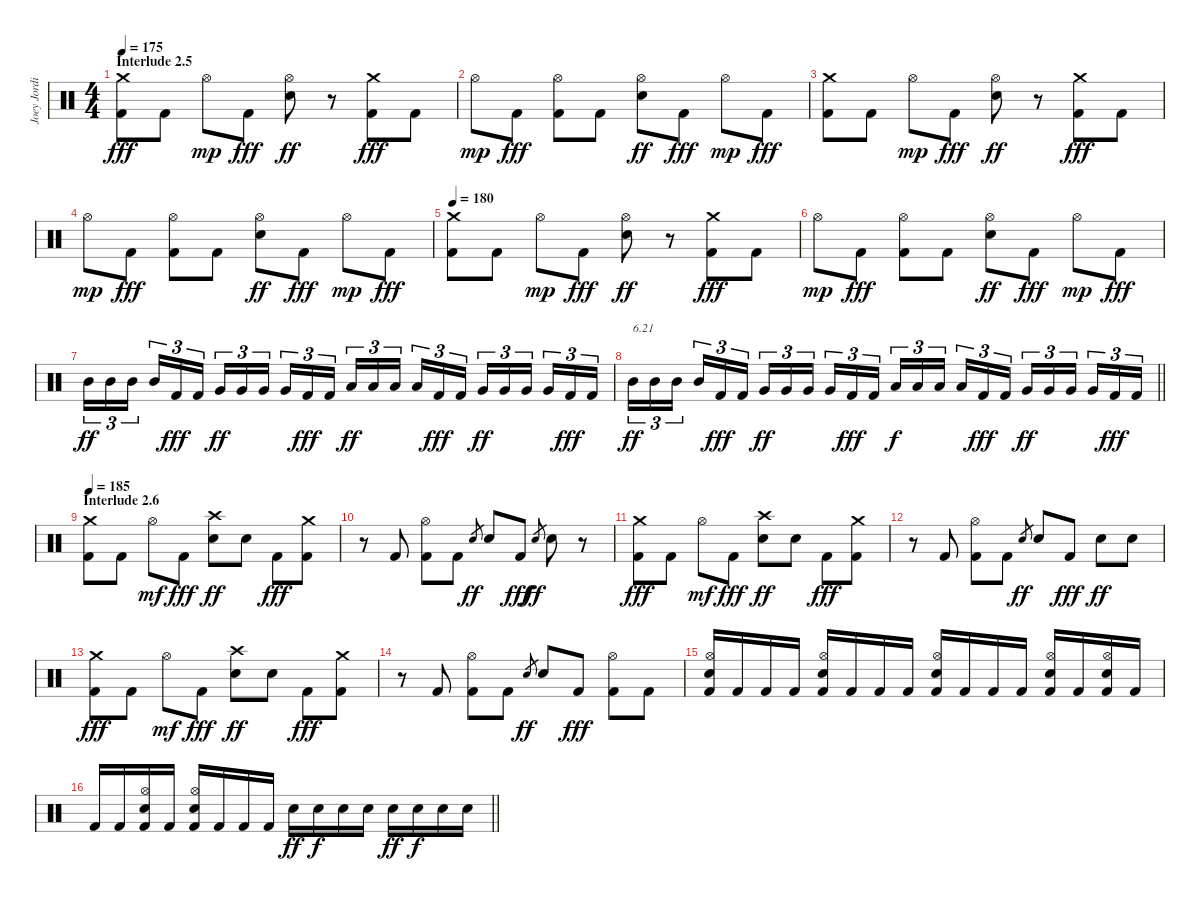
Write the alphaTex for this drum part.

\track ("Joey Jordison" "Joey Jordi") {instrument percussion}
\staff {score}
\articulation defaults
\ts (4 4)
\section ("" "Interlude 2.5")
\tempo 175
\clef neutral
\ks c
("Crash medium (hit)" "Kick (hit) 2").8{dy fff} "Kick (hit) 2".8 "Hi-Hat (open)".8{dy mp} "Kick (hit) 2".8{dy fff} ("Hi-Hat (open)" "Electric Snare (hit)").8{dy ff} r.8 ("Crash medium (hit)" "Kick (hit) 2").8{dy fff} "Kick (hit) 2".8 |
"Hi-Hat (open)".8{dy mp} "Kick (hit) 2".8{dy fff} ("Hi-Hat (open)" "Kick (hit) 2").8 "Kick (hit) 2".8 ("Hi-Hat (open)" "Electric Snare (hit)").8{dy ff} "Kick (hit) 2".8{dy fff} "Hi-Hat (open)".8{dy mp} "Kick (hit) 2".8{dy fff} |
("Crash medium (hit)" "Kick (hit) 2").8 "Kick (hit) 2".8 "Hi-Hat (open)".8{dy mp} "Kick (hit) 2".8{dy fff} ("Hi-Hat (open)" "Electric Snare (hit)").8{dy ff} r.8 ("Crash medium (hit)" "Kick (hit) 2").8{dy fff} "Kick (hit) 2".8 |
"Hi-Hat (open)".8{dy mp} "Kick (hit) 2".8{dy fff} ("Hi-Hat (open)" "Kick (hit) 2").8 "Kick (hit) 2".8 ("Hi-Hat (open)" "Electric Snare (hit)").8{dy ff} "Kick (hit) 2".8{dy fff} "Hi-Hat (open)".8{dy mp} "Kick (hit) 2".8{dy fff} |
\tempo 180
("Crash medium (hit)" "Kick (hit) 2").8 "Kick (hit) 2".8 "Hi-Hat (open)".8{dy mp} "Kick (hit) 2".8{dy fff} ("Hi-Hat (open)" "Electric Snare (hit)").8{dy ff} r.8 ("Crash medium (hit)" "Kick (hit) 2").8{dy fff} "Kick (hit) 2".8 |
"Hi-Hat (open)".8{dy mp} "Kick (hit) 2".8{dy fff} ("Hi-Hat (open)" "Kick (hit) 2").8 "Kick (hit) 2".8 ("Hi-Hat (open)" "Electric Snare (hit)").8{dy ff} "Kick (hit) 2".8{dy fff} "Hi-Hat (open)".8{dy mp} "Kick (hit) 2".8{dy fff} |
"Mid Tom (hit)".16{tu (3 2) dy ff} "Mid Tom (hit)".16{tu (3 2)} "Mid Tom (hit)".16{tu (3 2) beam splitsecondary} "Mid Tom (hit)".16{tu (3 2)} "Kick (hit) 2".16{tu (3 2) dy fff} "Kick (hit) 2".16{tu (3 2)} "Very Low Tom (hit)".16{tu (3 2) dy ff} "Very Low Tom (hit)".16{tu (3 2)} "Very Low Tom (hit)".16{tu (3 2) beam splitsecondary} "Very Low Tom (hit)".16{tu (3 2)} "Kick (hit) 2".16{tu (3 2) dy fff} "Kick (hit) 2".16{tu (3 2)} "Low Tom (hit)".16{tu (3 2) dy ff} "Low Tom (hit)".16{tu (3 2)} "Low Tom (hit)".16{tu (3 2) beam splitsecondary} "Low Tom (hit)".16{tu (3 2)} "Kick (hit) 2".16{tu (3 2) dy fff} "Kick (hit) 2".16{tu (3 2)} "Very Low Tom (hit)".16{tu (3 2) dy ff} "Very Low Tom (hit)".16{tu (3 2)} "Very Low Tom (hit)".16{tu (3 2) beam splitsecondary} "Very Low Tom (hit)".16{tu (3 2)} "Kick (hit) 2".16{tu (3 2) dy fff} "Kick (hit) 2".16{tu (3 2)} |
\barLineRight lightlight "Mid Tom (hit)".16{tu (3 2) txt "6.21" dy ff} "Mid Tom (hit)".16{tu (3 2)} "Mid Tom (hit)".16{tu (3 2) beam splitsecondary} "Mid Tom (hit)".16{tu (3 2)} "Kick (hit) 2".16{tu (3 2) dy fff} "Kick (hit) 2".16{tu (3 2)} "Very Low Tom (hit)".16{tu (3 2) dy ff} "Very Low Tom (hit)".16{tu (3 2)} "Very Low Tom (hit)".16{tu (3 2) beam splitsecondary} "Very Low Tom (hit)".16{tu (3 2)} "Kick (hit) 2".16{tu (3 2) dy fff} "Kick (hit) 2".16{tu (3 2)} "Low Tom (hit)".16{tu (3 2) dy f} "Low Tom (hit)".16{tu (3 2)} "Low Tom (hit)".16{tu (3 2) beam splitsecondary} "Low Tom (hit)".16{tu (3 2)} "Kick (hit) 2".16{tu (3 2) dy fff} "Kick (hit) 2".16{tu (3 2)} "Very Low Tom (hit)".16{tu (3 2) dy ff} "Very Low Tom (hit)".16{tu (3 2)} "Very Low Tom (hit)".16{tu (3 2) beam splitsecondary} "Very Low Tom (hit)".16{tu (3 2)} "Kick (hit) 2".16{tu (3 2) dy fff} "Kick (hit) 2".16{tu (3 2)}
|
\section ("" "Interlude 2.6")
\tempo 185
("Crash medium (hit)" "Kick (hit) 2").8 "Kick (hit) 2".8 "Hi-Hat (open)".8{dy mf} "Kick (hit) 2".8{dy fff} ("Crash high (hit)" "Electric Snare (hit)").8{dy ff} "Electric Snare (hit)".8 "Kick (hit) 2".8{dy fff} ("Crash medium (hit)" "Kick (hit) 2").8 |
r.8 "Kick (hit) 2".8 ("Hi-Hat (open)" "Kick (hit) 2").8 "Kick (hit) 2".8 "Electric Snare (hit)".8{gr dy ff} "Electric Snare (hit)".8 "Kick (hit) 2".8{dy fff} "Electric Snare (hit)".8{gr dy ff} "Electric Snare (hit)".8 r.8 |
("Crash medium (hit)" "Kick (hit) 2").8{dy fff} "Kick (hit) 2".8 "Hi-Hat (open)".8{dy mf} "Kick (hit) 2".8{dy fff} ("Crash high (hit)" "Electric Snare (hit)").8{dy ff} "Electric Snare (hit)".8 "Kick (hit) 2".8{dy fff} ("Crash medium (hit)" "Kick (hit) 2").8 |
r.8 "Kick (hit) 2".8 ("Hi-Hat (open)" "Kick (hit) 2").8 "Kick (hit) 2".8 "Electric Snare (hit)".8{gr dy ff} "Electric Snare (hit)".8 "Kick (hit) 2".8{dy fff} "Electric Snare (hit)".8{dy ff} "Electric Snare (hit)".8 |
("Crash medium (hit)" "Kick (hit) 2").8{dy fff} "Kick (hit) 2".8 "Hi-Hat (open)".8{dy mf} "Kick (hit) 2".8{dy fff} ("Crash high (hit)" "Electric Snare (hit)").8{dy ff} "Electric Snare (hit)".8 "Kick (hit) 2".8{dy fff} ("Crash medium (hit)" "Kick (hit) 2").8 |
r.8 "Kick (hit) 2".8 ("Hi-Hat (open)" "Kick (hit) 2").8 "Kick (hit) 2".8 "Electric Snare (hit)".8{gr dy ff} "Electric Snare (hit)".8 "Kick (hit) 2".8{dy fff} ("Hi-Hat (open)" "Kick (hit) 2").8 "Kick (hit) 2".8 |
("Hi-Hat (open)" "Electric Snare (hit)" "Kick (hit) 2").16 "Kick (hit) 2".16 "Kick (hit) 2".16 "Kick (hit) 2".16 ("Hi-Hat (open)" "Electric Snare (hit)" "Kick (hit) 2").16 "Kick (hit) 2".16 "Kick (hit) 2".16 "Kick (hit) 2".16 ("Hi-Hat (open)" "Electric Snare (hit)" "Kick (hit) 2").16 "Kick (hit) 2".16 "Kick (hit) 2".16 "Kick (hit) 2".16 ("Hi-Hat (open)" "Electric Snare (hit)" "Kick (hit) 2").16 "Kick (hit) 2".16 ("Hi-Hat (open)" "Electric Snare (hit)" "Kick (hit) 2").16 "Kick (hit) 2".16 |
\barLineRight lightlight "Kick (hit) 2".16 "Kick (hit) 2".16
("Hi-Hat (open)" "Electric Snare (hit)" "Kick (hit) 2").16 "Kick (hit) 2".16 ("Hi-Hat (open)" "Electric Snare (hit)" "Kick (hit) 2").16 "Kick (hit) 2".16 "Kick (hit) 2".16 "Kick (hit) 2".16 "Electric Snare (hit)".16{dy ff} "Electric Snare (hit)".16{dy f} "Electric Snare (hit)".16 "Electric Snare (hit)".16 "Electric Snare (hit)".16{dy ff} "Electric Snare (hit)".16{dy f} "Electric Snare (hit)".16 "Electric Snare (hit)".16
